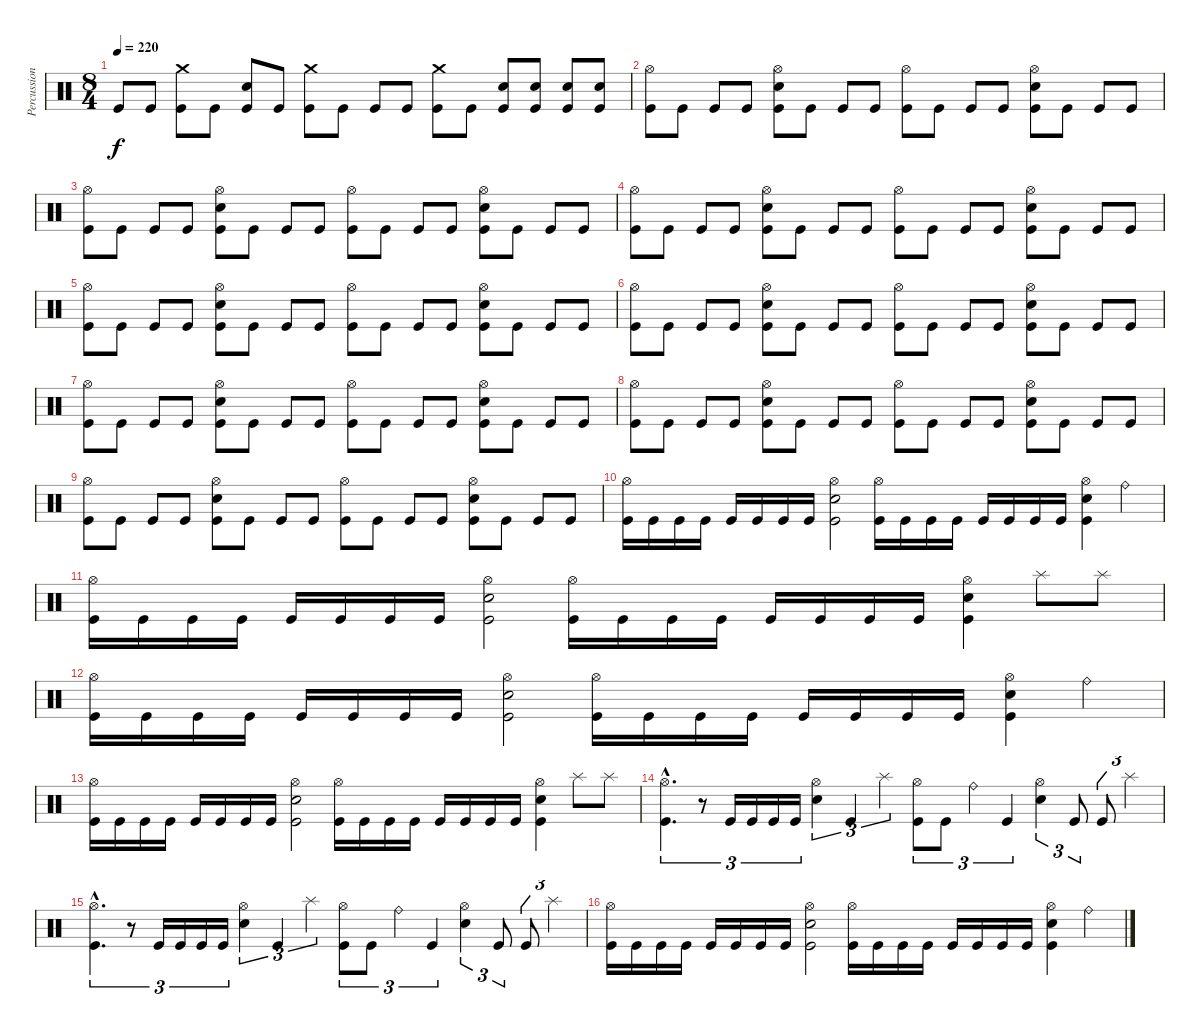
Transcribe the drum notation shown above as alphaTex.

\track ("Percussion" "Percussion") {instrument percussion}
\staff {score}
\articulation defaults
\ts (8 4)
\tempo 220
\clef neutral
\ks c "Kick (hit)".8{dy f} "Kick (hit)".8
("Crash medium (hit)" "Kick (hit)").8 "Kick (hit)".8 ("Snare (hit) 2" "Kick (hit)").8 "Kick (hit)".8 ("Crash medium (hit)" "Kick (hit)").8 "Kick (hit)".8 "Kick (hit)".8 "Kick (hit)".8 ("Crash medium (hit)" "Kick (hit)").8 "Kick (hit)".8 ("Snare (hit) 2" "Kick (hit)").8 ("Snare (hit) 2" "Kick (hit)").8 ("Snare (hit) 2" "Kick (hit)").8 ("Snare (hit) 2" "Kick (hit)").8 |
("Hi-Hat (open)" "Kick (hit)").8 "Kick (hit)".8 "Kick (hit)".8 "Kick (hit)".8 ("Hi-Hat (open)" "Snare (hit) 2" "Kick (hit)").8 "Kick (hit)".8 "Kick (hit)".8 "Kick (hit)".8 ("Hi-Hat (open)" "Kick (hit)").8 "Kick (hit)".8 "Kick (hit)".8 "Kick (hit)".8 ("Hi-Hat (open)" "Snare (hit) 2" "Kick (hit)").8 "Kick (hit)".8 "Kick (hit)".8 "Kick (hit)".8 |
("Hi-Hat (open)" "Kick (hit)").8 "Kick (hit)".8 "Kick (hit)".8 "Kick (hit)".8 ("Hi-Hat (open)" "Snare (hit) 2" "Kick (hit)").8 "Kick (hit)".8 "Kick (hit)".8 "Kick (hit)".8 ("Hi-Hat (open)" "Kick (hit)").8 "Kick (hit)".8 "Kick (hit)".8 "Kick (hit)".8 ("Hi-Hat (open)" "Snare (hit) 2" "Kick (hit)").8 "Kick (hit)".8 "Kick (hit)".8 "Kick (hit)".8 |
("Hi-Hat (open)" "Kick (hit)").8 "Kick (hit)".8 "Kick (hit)".8 "Kick (hit)".8 ("Hi-Hat (open)" "Snare (hit) 2" "Kick (hit)").8 "Kick (hit)".8 "Kick (hit)".8 "Kick (hit)".8 ("Hi-Hat (open)" "Kick (hit)").8 "Kick (hit)".8 "Kick (hit)".8 "Kick (hit)".8 ("Hi-Hat (open)" "Snare (hit) 2" "Kick (hit)").8 "Kick (hit)".8 "Kick (hit)".8 "Kick (hit)".8 |
("Hi-Hat (open)" "Kick (hit)").8 "Kick (hit)".8 "Kick (hit)".8 "Kick (hit)".8 ("Hi-Hat (open)" "Snare (hit) 2" "Kick (hit)").8 "Kick (hit)".8 "Kick (hit)".8 "Kick (hit)".8 ("Hi-Hat (open)" "Kick (hit)").8 "Kick (hit)".8 "Kick (hit)".8 "Kick (hit)".8 ("Hi-Hat (open)" "Snare (hit) 2" "Kick (hit)").8 "Kick (hit)".8 "Kick (hit)".8 "Kick (hit)".8 |
("Hi-Hat (open)" "Kick (hit)").8 "Kick (hit)".8 "Kick (hit)".8 "Kick (hit)".8 ("Hi-Hat (open)" "Snare (hit) 2" "Kick (hit)").8 "Kick (hit)".8 "Kick (hit)".8 "Kick (hit)".8 ("Hi-Hat (open)" "Kick (hit)").8 "Kick (hit)".8 "Kick (hit)".8 "Kick (hit)".8 ("Hi-Hat (open)" "Snare (hit) 2" "Kick (hit)").8 "Kick (hit)".8 "Kick (hit)".8 "Kick (hit)".8 |
("Hi-Hat (open)" "Kick (hit)").8 "Kick (hit)".8 "Kick (hit)".8 "Kick (hit)".8 ("Hi-Hat (open)" "Snare (hit) 2" "Kick (hit)").8 "Kick (hit)".8 "Kick (hit)".8 "Kick (hit)".8 ("Hi-Hat (open)" "Kick (hit)").8 "Kick (hit)".8 "Kick (hit)".8 "Kick (hit)".8 ("Hi-Hat (open)" "Snare (hit) 2" "Kick (hit)").8 "Kick (hit)".8 "Kick (hit)".8 "Kick (hit)".8 |
("Hi-Hat (open)" "Kick (hit)").8 "Kick (hit)".8 "Kick (hit)".8 "Kick (hit)".8 ("Hi-Hat (open)" "Snare (hit) 2" "Kick (hit)").8 "Kick (hit)".8 "Kick (hit)".8 "Kick (hit)".8 ("Hi-Hat (open)" "Kick (hit)").8 "Kick (hit)".8 "Kick (hit)".8 "Kick (hit)".8 ("Hi-Hat (open)" "Snare (hit) 2" "Kick (hit)").8 "Kick (hit)".8 "Kick (hit)".8 "Kick (hit)".8 |
("Hi-Hat (open)" "Kick (hit)").8 "Kick (hit)".8 "Kick (hit)".8 "Kick (hit)".8 ("Hi-Hat (open)" "Snare (hit) 2" "Kick (hit)").8 "Kick (hit)".8 "Kick (hit)".8 "Kick (hit)".8 ("Hi-Hat (open)" "Kick (hit)").8 "Kick (hit)".8 "Kick (hit)".8 "Kick (hit)".8 ("Hi-Hat (open)" "Snare (hit) 2" "Kick (hit)").8 "Kick (hit)".8 "Kick (hit)".8 "Kick (hit)".8 |
("Hi-Hat (open)" "Kick (hit)").16 "Kick (hit)".16 "Kick (hit)".16 "Kick (hit)".16 "Kick (hit)".16 "Kick (hit)".16 "Kick (hit)".16 "Kick (hit)".16 ("Hi-Hat (open)" "Snare (hit) 2" "Kick (hit)").2 ("Hi-Hat (open)" "Kick (hit)").16 "Kick (hit)".16 "Kick (hit)".16 "Kick (hit)".16 "Kick (hit)".16 "Kick (hit)".16 "Kick (hit)".16 "Kick (hit)".16 ("Hi-Hat (open)" "Snare (hit) 2" "Kick (hit)").4 "Ride (bell)".4 |
("Hi-Hat (open)" "Kick (hit)").16 "Kick (hit)".16 "Kick (hit)".16 "Kick (hit)".16 "Kick (hit)".16 "Kick (hit)".16 "Kick (hit)".16 "Kick (hit)".16 ("Hi-Hat (open)" "Snare (hit) 2" "Kick (hit)").2 ("Hi-Hat (open)" "Kick (hit)").16 "Kick (hit)".16 "Kick (hit)".16 "Kick (hit)".16 "Kick (hit)".16 "Kick (hit)".16 "Kick (hit)".16 "Kick (hit)".16 ("Hi-Hat (open)" "Snare (hit) 2" "Kick (hit)").4 "Splash (hit)".8 "Splash (hit)".8 |
("Hi-Hat (open)" "Kick (hit)").16 "Kick (hit)".16 "Kick (hit)".16 "Kick (hit)".16 "Kick (hit)".16 "Kick (hit)".16 "Kick (hit)".16 "Kick (hit)".16 ("Hi-Hat (open)" "Snare (hit) 2" "Kick (hit)").2 ("Hi-Hat (open)" "Kick (hit)").16 "Kick (hit)".16 "Kick (hit)".16 "Kick (hit)".16 "Kick (hit)".16 "Kick (hit)".16 "Kick (hit)".16 "Kick (hit)".16 ("Hi-Hat (open)" "Snare (hit) 2" "Kick (hit)").4 "Ride (bell)".4 |
("Hi-Hat (open)" "Kick (hit)").16 "Kick (hit)".16 "Kick (hit)".16 "Kick (hit)".16 "Kick (hit)".16 "Kick (hit)".16 "Kick (hit)".16 "Kick (hit)".16 ("Hi-Hat (open)" "Snare (hit) 2" "Kick (hit)").2 ("Hi-Hat (open)" "Kick (hit)").16 "Kick (hit)".16 "Kick (hit)".16 "Kick (hit)".16 "Kick (hit)".16 "Kick (hit)".16 "Kick (hit)".16 "Kick (hit)".16 ("Hi-Hat (open)" "Snare (hit) 2" "Kick (hit)").4 "Splash (hit)".8 "Splash (hit)".8 |
("Hi-Hat (open)"{hac} "Kick (hit)"{hac}).4{d tu (3 2)} r.8{tu (3 2)} "Kick (hit)".16{tu (3 2)} "Kick (hit)".16{tu (3 2)} "Kick (hit)".16{tu (3 2)} "Kick (hit)".16{tu (3 2)} ("Hi-Hat (open)" "Snare (hit) 2").4{tu (3 2)} "Kick (hit)".4{tu (3 2)} "Splash (hit)".4{tu (3 2)} ("Hi-Hat (open)" "Kick (hit)").8{tu (3 2)} "Kick (hit)".8{tu (3 2)} "Ride (bell)".4{tu (3 2)} "Kick (hit)".4{tu (3 2)} ("Hi-Hat (open)" "Snare (hit) 2").4{tu (3 2)} "Kick (hit)".8{tu (3 2)} "Kick (hit)".8{tu (3 2)} "Splash (hit)".4{tu (3 2)} |
("Hi-Hat (open)"{hac} "Kick (hit)"{hac}).4{d tu (3 2)} r.8{tu (3 2)} "Kick (hit)".16{tu (3 2)} "Kick (hit)".16{tu (3 2)} "Kick (hit)".16{tu (3 2)} "Kick (hit)".16{tu (3 2)} ("Hi-Hat (open)" "Snare (hit) 2").4{tu (3 2)} "Kick (hit)".4{tu (3 2)} "Splash (hit)".4{tu (3 2)} ("Hi-Hat (open)" "Kick (hit)").8{tu (3 2)} "Kick (hit)".8{tu (3 2)} "Ride (bell)".4{tu (3 2)} "Kick (hit)".4{tu (3 2)} ("Hi-Hat (open)" "Snare (hit) 2").4{tu (3 2)} "Kick (hit)".8{tu (3 2)} "Kick (hit)".8{tu (3 2)} "Splash (hit)".4{tu (3 2)} |
("Hi-Hat (open)" "Kick (hit)").16 "Kick (hit)".16 "Kick (hit)".16 "Kick (hit)".16 "Kick (hit)".16 "Kick (hit)".16 "Kick (hit)".16 "Kick (hit)".16 ("Hi-Hat (open)" "Snare (hit) 2" "Kick (hit)").2 ("Hi-Hat (open)" "Kick (hit)").16 "Kick (hit)".16 "Kick (hit)".16 "Kick (hit)".16 "Kick (hit)".16 "Kick (hit)".16 "Kick (hit)".16 "Kick (hit)".16 ("Hi-Hat (open)" "Snare (hit) 2" "Kick (hit)").4 "Ride (bell)".4
